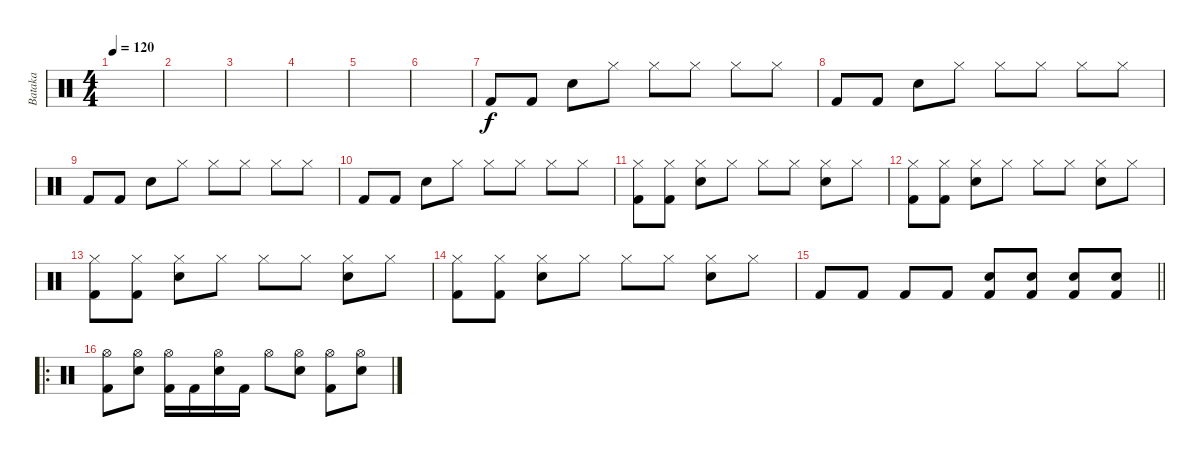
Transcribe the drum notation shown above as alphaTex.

\track ("Bataka" "Bataka") {instrument percussion}
\staff {score}
\articulation defaults
\ts (4 4)
\tempo 120
\clef neutral
\ks c
|
|
|
|
|
|
"Kick (hit) 2".8 "Kick (hit) 2".8 "Electric Snare (hit)".8 "Hi-Hat (closed)".8 "Hi-Hat (closed)".8 "Hi-Hat (closed)".8 "Hi-Hat (closed)".8 "Hi-Hat (closed)".8 |
"Kick (hit) 2".8 "Kick (hit) 2".8 "Electric Snare (hit)".8 "Hi-Hat (closed)".8 "Hi-Hat (closed)".8 "Hi-Hat (closed)".8 "Hi-Hat (closed)".8 "Hi-Hat (closed)".8 |
"Kick (hit) 2".8 "Kick (hit) 2".8 "Electric Snare (hit)".8 "Hi-Hat (closed)".8 "Hi-Hat (closed)".8 "Hi-Hat (closed)".8 "Hi-Hat (closed)".8 "Hi-Hat (closed)".8 |
"Kick (hit) 2".8 "Kick (hit) 2".8 "Electric Snare (hit)".8 "Hi-Hat (closed)".8 "Hi-Hat (closed)".8 "Hi-Hat (closed)".8 "Hi-Hat (closed)".8 "Hi-Hat (closed)".8 |
("Hi-Hat (closed)" "Kick (hit) 2").8 ("Hi-Hat (closed)" "Kick (hit) 2").8 ("Hi-Hat (closed)" "Electric Snare (hit)").8 "Hi-Hat (closed)".8 "Hi-Hat (closed)".8 "Hi-Hat (closed)".8 ("Hi-Hat (closed)" "Electric Snare (hit)").8 "Hi-Hat (closed)".8 |
("Hi-Hat (closed)" "Kick (hit) 2").8 ("Hi-Hat (closed)" "Kick (hit) 2").8 ("Hi-Hat (closed)" "Electric Snare (hit)").8 "Hi-Hat (closed)".8 "Hi-Hat (closed)".8 "Hi-Hat (closed)".8 ("Hi-Hat (closed)" "Electric Snare (hit)").8 "Hi-Hat (closed)".8 |
("Hi-Hat (closed)" "Kick (hit) 2").8 ("Hi-Hat (closed)" "Kick (hit) 2").8 ("Hi-Hat (closed)" "Electric Snare (hit)").8 "Hi-Hat (closed)".8 "Hi-Hat (closed)".8 "Hi-Hat (closed)".8 ("Hi-Hat (closed)" "Electric Snare (hit)").8 "Hi-Hat (closed)".8 |
("Hi-Hat (closed)" "Kick (hit) 2").8 ("Hi-Hat (closed)" "Kick (hit) 2").8 ("Hi-Hat (closed)" "Electric Snare (hit)").8 "Hi-Hat (closed)".8 "Hi-Hat (closed)".8 "Hi-Hat (closed)".8 ("Hi-Hat (closed)" "Electric Snare (hit)").8 "Hi-Hat (closed)".8 |
\barLineRight lightlight "Kick (hit) 2".8 "Kick (hit) 2".8 "Kick (hit) 2".8 "Kick (hit) 2".8
("Electric Snare (hit)" "Kick (hit) 2").8 ("Electric Snare (hit)" "Kick (hit) 2").8 ("Electric Snare (hit)" "Kick (hit) 2").8 ("Electric Snare (hit)" "Kick (hit) 2").8 |
\ro
\section ("" "")
("Hi-Hat (open)" "Kick (hit) 2").8 ("Hi-Hat (open)" "Electric Snare (hit)").8 ("Hi-Hat (open)" "Kick (hit) 2").16 "Kick (hit) 2".16 ("Hi-Hat (open)" "Electric Snare (hit)").16 "Kick (hit) 2".16 "Hi-Hat (open)".8 ("Hi-Hat (open)" "Electric Snare (hit)").8 ("Hi-Hat (open)" "Kick (hit) 2").8 ("Hi-Hat (open)" "Electric Snare (hit)").8
